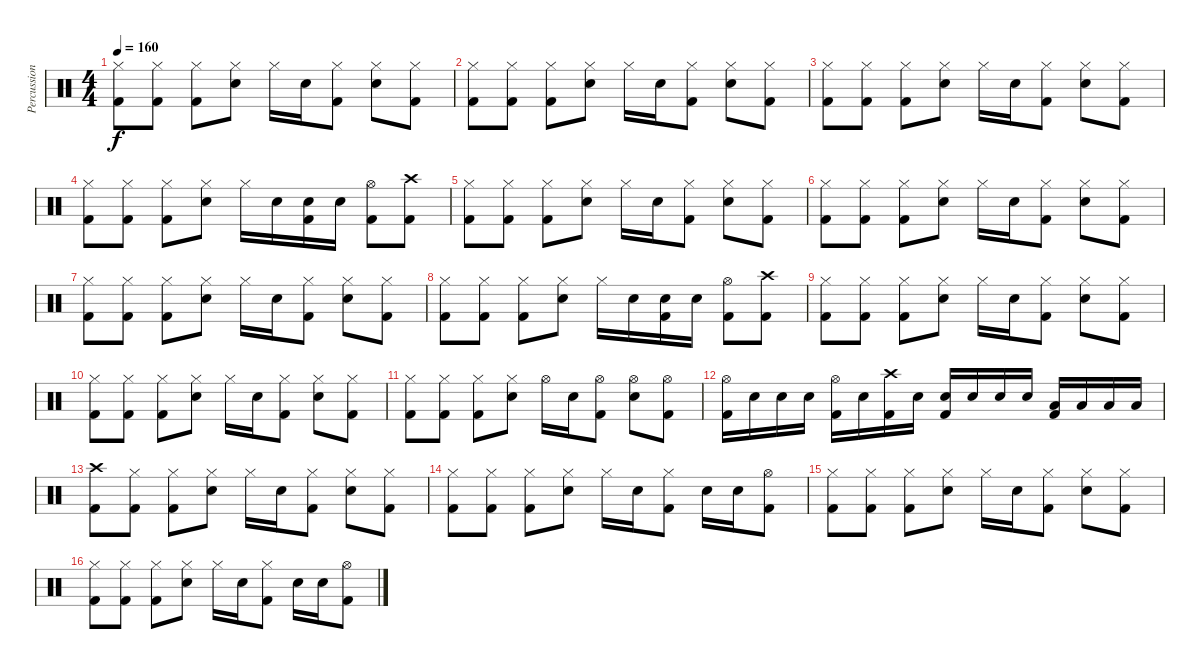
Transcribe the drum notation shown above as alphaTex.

\track ("Percussion" "Percussion") {instrument percussion}
\staff {score}
\articulation defaults
\ts (4 4)
\tempo 160
\clef neutral
\ks c
("Hi-Hat (closed)" "Kick (hit) 2").8{dy f} ("Hi-Hat (closed)" "Kick (hit) 2").8 ("Hi-Hat (closed)" "Kick (hit) 2").8 ("Hi-Hat (closed)" "Electric Snare (hit)").8 "Hi-Hat (closed)".16 "Electric Snare (hit)".16 ("Hi-Hat (closed)" "Kick (hit) 2").8 ("Hi-Hat (closed)" "Electric Snare (hit)").8 ("Hi-Hat (closed)" "Kick (hit) 2").8 |
("Hi-Hat (closed)" "Kick (hit) 2").8 ("Hi-Hat (closed)" "Kick (hit) 2").8 ("Hi-Hat (closed)" "Kick (hit) 2").8 ("Hi-Hat (closed)" "Electric Snare (hit)").8 "Hi-Hat (closed)".16 "Electric Snare (hit)".16 ("Hi-Hat (closed)" "Kick (hit) 2").8 ("Hi-Hat (closed)" "Electric Snare (hit)").8 ("Hi-Hat (closed)" "Kick (hit) 2").8 |
("Hi-Hat (closed)" "Kick (hit) 2").8 ("Hi-Hat (closed)" "Kick (hit) 2").8 ("Hi-Hat (closed)" "Kick (hit) 2").8 ("Hi-Hat (closed)" "Electric Snare (hit)").8 "Hi-Hat (closed)".16 "Electric Snare (hit)".16 ("Hi-Hat (closed)" "Kick (hit) 2").8 ("Hi-Hat (closed)" "Electric Snare (hit)").8 ("Hi-Hat (closed)" "Kick (hit) 2").8 |
("Hi-Hat (closed)" "Kick (hit) 2").8 ("Hi-Hat (closed)" "Kick (hit) 2").8 ("Hi-Hat (closed)" "Kick (hit) 2").8 ("Hi-Hat (closed)" "Electric Snare (hit)").8 "Hi-Hat (closed)".16 "Electric Snare (hit)".16 ("Electric Snare (hit)" "Kick (hit) 2").16 "Electric Snare (hit)".16 ("Hi-Hat (open)" "Kick (hit) 2").8 ("Crash high (hit)" "Kick (hit) 2").8 |
("Hi-Hat (closed)" "Kick (hit) 2").8 ("Hi-Hat (closed)" "Kick (hit) 2").8 ("Hi-Hat (closed)" "Kick (hit) 2").8 ("Hi-Hat (closed)" "Electric Snare (hit)").8 "Hi-Hat (closed)".16 "Electric Snare (hit)".16 ("Hi-Hat (closed)" "Kick (hit) 2").8 ("Hi-Hat (closed)" "Electric Snare (hit)").8 ("Hi-Hat (closed)" "Kick (hit) 2").8 |
("Hi-Hat (closed)" "Kick (hit) 2").8 ("Hi-Hat (closed)" "Kick (hit) 2").8 ("Hi-Hat (closed)" "Kick (hit) 2").8 ("Hi-Hat (closed)" "Electric Snare (hit)").8 "Hi-Hat (closed)".16 "Electric Snare (hit)".16 ("Hi-Hat (closed)" "Kick (hit) 2").8 ("Hi-Hat (closed)" "Electric Snare (hit)").8 ("Hi-Hat (closed)" "Kick (hit) 2").8 |
("Hi-Hat (closed)" "Kick (hit) 2").8 ("Hi-Hat (closed)" "Kick (hit) 2").8 ("Hi-Hat (closed)" "Kick (hit) 2").8 ("Hi-Hat (closed)" "Electric Snare (hit)").8 "Hi-Hat (closed)".16 "Electric Snare (hit)".16 ("Hi-Hat (closed)" "Kick (hit) 2").8 ("Hi-Hat (closed)" "Electric Snare (hit)").8 ("Hi-Hat (closed)" "Kick (hit) 2").8 |
("Hi-Hat (closed)" "Kick (hit) 2").8 ("Hi-Hat (closed)" "Kick (hit) 2").8 ("Hi-Hat (closed)" "Kick (hit) 2").8 ("Hi-Hat (closed)" "Electric Snare (hit)").8 "Hi-Hat (closed)".16 "Electric Snare (hit)".16 ("Electric Snare (hit)" "Kick (hit) 2").16 "Electric Snare (hit)".16 ("Hi-Hat (open)" "Kick (hit) 2").8 ("Crash high (hit)" "Kick (hit) 2").8 |
("Hi-Hat (closed)" "Kick (hit) 2").8 ("Hi-Hat (closed)" "Kick (hit) 2").8 ("Hi-Hat (closed)" "Kick (hit) 2").8 ("Hi-Hat (closed)" "Electric Snare (hit)").8 "Hi-Hat (closed)".16 "Electric Snare (hit)".16 ("Hi-Hat (closed)" "Kick (hit) 2").8 ("Hi-Hat (closed)" "Electric Snare (hit)").8 ("Hi-Hat (closed)" "Kick (hit) 2").8 |
("Hi-Hat (closed)" "Kick (hit) 2").8 ("Hi-Hat (closed)" "Kick (hit) 2").8 ("Hi-Hat (closed)" "Kick (hit) 2").8 ("Hi-Hat (closed)" "Electric Snare (hit)").8 "Hi-Hat (closed)".16 "Electric Snare (hit)".16 ("Hi-Hat (closed)" "Kick (hit) 2").8 ("Hi-Hat (closed)" "Electric Snare (hit)").8 ("Hi-Hat (closed)" "Kick (hit) 2").8 |
("Hi-Hat (closed)" "Kick (hit) 2").8 ("Hi-Hat (closed)" "Kick (hit) 2").8 ("Hi-Hat (closed)" "Kick (hit) 2").8 ("Hi-Hat (closed)" "Electric Snare (hit)").8 "Hi-Hat (open)".16 "Electric Snare (hit)".16 ("Hi-Hat (open)" "Kick (hit) 2").8 ("Hi-Hat (open)" "Electric Snare (hit)").8 ("Hi-Hat (open)" "Kick (hit) 2").8 |
("Hi-Hat (open)" "Kick (hit) 2").16 "Electric Snare (hit)".16 "Electric Snare (hit)".16 "Electric Snare (hit)".16 ("Hi-Hat (open)" "Kick (hit) 2").16 "Electric Snare (hit)".16 ("Crash high (hit)" "Kick (hit) 2").16 "Electric Snare (hit)".16 ("Electric Snare (hit)" "Kick (hit) 2").16 "Electric Snare (hit)".16 "Electric Snare (hit)".16 "Electric Snare (hit)".16 ("Low Tom (hit)" "Kick (hit) 2").16 "Low Tom (hit)".16 "Low Tom (hit)".16 "Low Tom (hit)".16 |
("Crash high (hit)" "Kick (hit) 2").8 ("Hi-Hat (closed)" "Kick (hit) 2").8 ("Hi-Hat (closed)" "Kick (hit) 2").8 ("Hi-Hat (closed)" "Electric Snare (hit)").8 "Hi-Hat (closed)".16 "Electric Snare (hit)".16 ("Hi-Hat (closed)" "Kick (hit) 2").8 ("Hi-Hat (closed)" "Electric Snare (hit)").8 ("Hi-Hat (closed)" "Kick (hit) 2").8 |
("Hi-Hat (closed)" "Kick (hit) 2").8 ("Hi-Hat (closed)" "Kick (hit) 2").8 ("Hi-Hat (closed)" "Kick (hit) 2").8 ("Hi-Hat (closed)" "Electric Snare (hit)").8 "Hi-Hat (closed)".16 "Electric Snare (hit)".16 ("Hi-Hat (closed)" "Kick (hit) 2").8 "Electric Snare (hit)".16 "Electric Snare (hit)".16 ("Hi-Hat (open)" "Kick (hit) 2").8 |
("Hi-Hat (closed)" "Kick (hit) 2").8 ("Hi-Hat (closed)" "Kick (hit) 2").8 ("Hi-Hat (closed)" "Kick (hit) 2").8 ("Hi-Hat (closed)" "Electric Snare (hit)").8 "Hi-Hat (closed)".16 "Electric Snare (hit)".16 ("Hi-Hat (closed)" "Kick (hit) 2").8 ("Hi-Hat (closed)" "Electric Snare (hit)").8 ("Hi-Hat (closed)" "Kick (hit) 2").8 |
("Hi-Hat (closed)" "Kick (hit) 2").8 ("Hi-Hat (closed)" "Kick (hit) 2").8 ("Hi-Hat (closed)" "Kick (hit) 2").8 ("Hi-Hat (closed)" "Electric Snare (hit)").8 "Hi-Hat (closed)".16 "Electric Snare (hit)".16 ("Hi-Hat (closed)" "Kick (hit) 2").8 "Electric Snare (hit)".16 "Electric Snare (hit)".16 ("Hi-Hat (open)" "Kick (hit) 2").8
